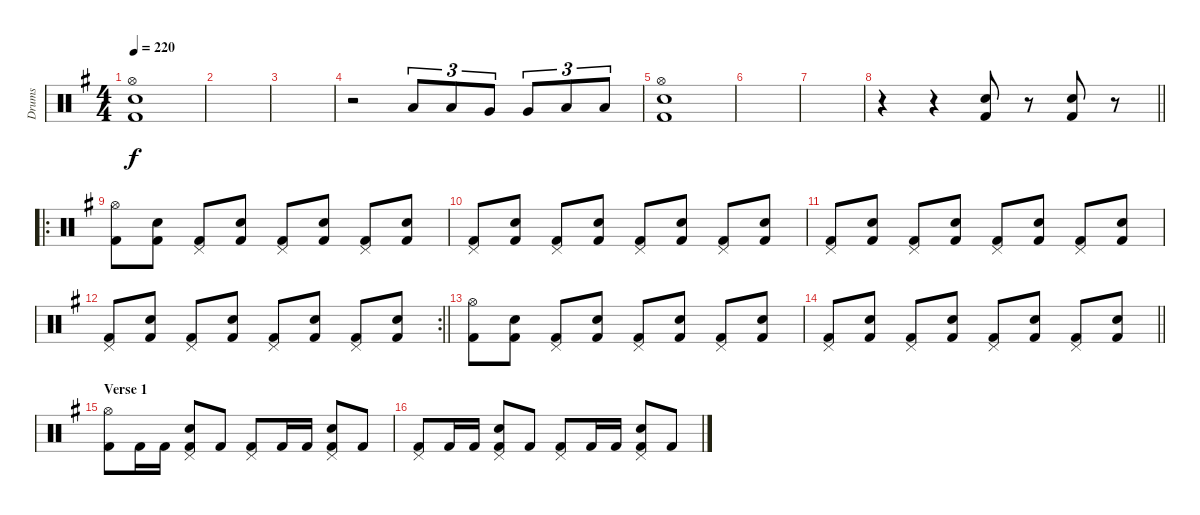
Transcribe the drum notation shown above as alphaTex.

\track ("Drums" "Drums") {instrument percussion}
\staff {score}
\articulation defaults
\ts (4 4)
\tempo 220
\clef neutral
\ks g
("Hi-Hat (open)" "Snare (hit) 2" "Kick (hit) 2").1{dy f} |
|
|
r.2 "Low Tom (hit)".8{tu (3 2)} "Low Tom (hit)".8{tu (3 2)} "Very Low Tom (hit)".8{tu (3 2)} "Very Low Tom (hit)".8{tu (3 2)} "Low Floor Tom (hit)".8{tu (3 2)} "Low Floor Tom (hit)".8{tu (3 2)} |
("Hi-Hat (open)" "Snare (hit) 2" "Kick (hit) 2").1 |
|
|
\barLineRight lightlight
r.4 r.4 ("Snare (hit) 2" "Kick (hit) 2").8 r.8 ("Snare (hit) 2" "Kick (hit) 2").8 r.8 |
\ro
("Hi-Hat (open)" "Kick (hit) 2").8 ("Snare (hit) 2" "Kick (hit) 2").8 ("Pedal Hi-Hat (hit)" "Kick (hit) 2").8 ("Snare (hit) 2" "Kick (hit) 2").8 ("Pedal Hi-Hat (hit)" "Kick (hit) 2").8 ("Snare (hit) 2" "Kick (hit) 2").8 ("Pedal Hi-Hat (hit)" "Kick (hit) 2").8 ("Snare (hit) 2" "Kick (hit) 2").8 |
("Pedal Hi-Hat (hit)" "Kick (hit) 2").8 ("Snare (hit) 2" "Kick (hit) 2").8 ("Pedal Hi-Hat (hit)" "Kick (hit) 2").8 ("Snare (hit) 2" "Kick (hit) 2").8 ("Pedal Hi-Hat (hit)" "Kick (hit) 2").8 ("Snare (hit) 2" "Kick (hit) 2").8 ("Pedal Hi-Hat (hit)" "Kick (hit) 2").8 ("Snare (hit) 2" "Kick (hit) 2").8 |
("Pedal Hi-Hat (hit)" "Kick (hit) 2").8 ("Snare (hit) 2" "Kick (hit) 2").8 ("Pedal Hi-Hat (hit)" "Kick (hit) 2").8 ("Snare (hit) 2" "Kick (hit) 2").8 ("Pedal Hi-Hat (hit)" "Kick (hit) 2").8 ("Snare (hit) 2" "Kick (hit) 2").8 ("Pedal Hi-Hat (hit)" "Kick (hit) 2").8 ("Snare (hit) 2" "Kick (hit) 2").8 |
\rc 2
\barLineRight lightlight
("Pedal Hi-Hat (hit)" "Kick (hit) 2").8 ("Snare (hit) 2" "Kick (hit) 2").8 ("Pedal Hi-Hat (hit)" "Kick (hit) 2").8 ("Snare (hit) 2" "Kick (hit) 2").8 ("Pedal Hi-Hat (hit)" "Kick (hit) 2").8 ("Snare (hit) 2" "Kick (hit) 2").8 ("Pedal Hi-Hat (hit)" "Kick (hit) 2").8 ("Snare (hit) 2" "Kick (hit) 2").8 |
("Hi-Hat (open)" "Kick (hit) 2").8 ("Snare (hit) 2" "Kick (hit) 2").8 ("Pedal Hi-Hat (hit)" "Kick (hit) 2").8 ("Snare (hit) 2" "Kick (hit) 2").8 ("Pedal Hi-Hat (hit)" "Kick (hit) 2").8 ("Snare (hit) 2" "Kick (hit) 2").8 ("Pedal Hi-Hat (hit)" "Kick (hit) 2").8 ("Snare (hit) 2" "Kick (hit) 2").8 |
\barLineRight lightlight
("Pedal Hi-Hat (hit)" "Kick (hit) 2").8 ("Snare (hit) 2" "Kick (hit) 2").8 ("Pedal Hi-Hat (hit)" "Kick (hit) 2").8 ("Snare (hit) 2" "Kick (hit) 2").8 ("Pedal Hi-Hat (hit)" "Kick (hit) 2").8 ("Snare (hit) 2" "Kick (hit) 2").8 ("Pedal Hi-Hat (hit)" "Kick (hit) 2").8 ("Snare (hit) 2" "Kick (hit) 2").8 |
\section ("" "Verse 1")
("Hi-Hat (open)" "Kick (hit) 2").8 "Kick (hit) 2".16 "Kick (hit) 2".16 ("Pedal Hi-Hat (hit)" "Snare (hit) 2" "Kick (hit) 2").8 "Kick (hit) 2".8 ("Pedal Hi-Hat (hit)" "Kick (hit) 2").8 "Kick (hit) 2".16 "Kick (hit) 2".16 ("Pedal Hi-Hat (hit)" "Snare (hit) 2" "Kick (hit) 2").8 "Kick (hit) 2".8 |
("Pedal Hi-Hat (hit)" "Kick (hit) 2").8 "Kick (hit) 2".16 "Kick (hit) 2".16 ("Pedal Hi-Hat (hit)" "Snare (hit) 2" "Kick (hit) 2").8 "Kick (hit) 2".8 ("Pedal Hi-Hat (hit)" "Kick (hit) 2").8 "Kick (hit) 2".16 "Kick (hit) 2".16 ("Pedal Hi-Hat (hit)" "Snare (hit) 2" "Kick (hit) 2").8 "Kick (hit) 2".8
